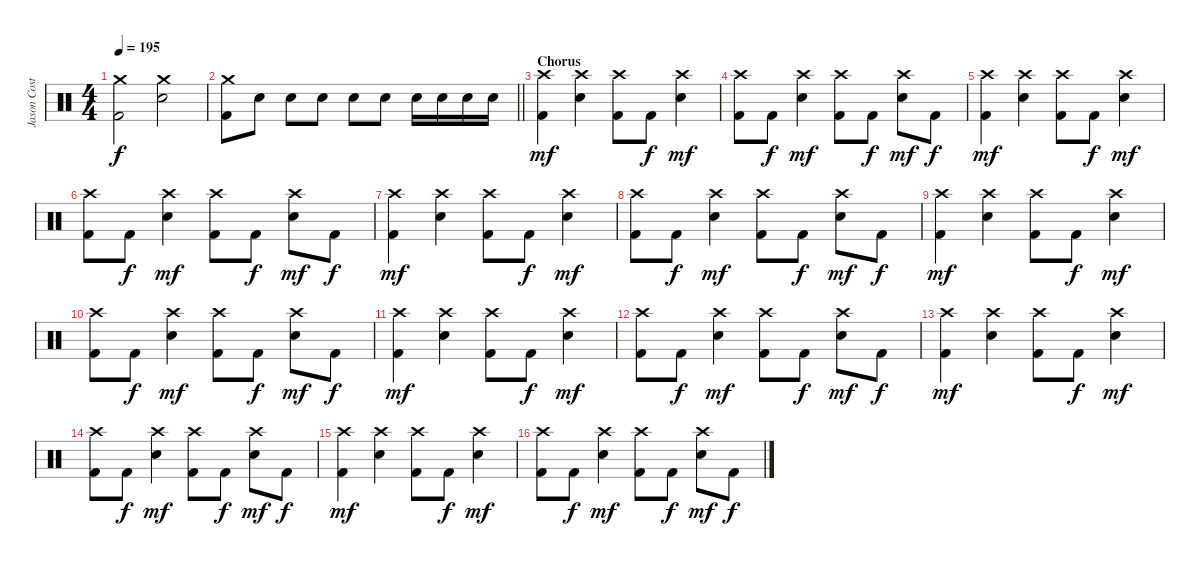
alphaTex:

\track ("Jason Costa" "Jason Cost") {instrument percussion}
\staff {score}
\articulation defaults
\ts (4 4)
\tempo 195
\clef neutral
\ks c
("Crash medium (hit)" "Kick (hit) 2").2{dy f} ("Crash medium (hit)" "Electric Snare (hit)").2 |
\barLineRight lightlight
("Crash medium (hit)" "Kick (hit) 2").8 "Electric Snare (hit)".8 "Electric Snare (hit)".8 "Electric Snare (hit)".8 "Electric Snare (hit)".8 "Electric Snare (hit)".8 "Electric Snare (hit)".16 "Electric Snare (hit)".16 "Electric Snare (hit)".16 "Electric Snare (hit)".16 |
\section ("" "Chorus")
("Crash high (hit)" "Kick (hit) 2").4{dy mf} ("Crash high (hit)" "Electric Snare (hit)").4 ("Crash high (hit)" "Kick (hit) 2").8 "Kick (hit) 2".8{dy f} ("Crash high (hit)" "Electric Snare (hit)").4{dy mf} |
("Crash high (hit)" "Kick (hit) 2").8 "Kick (hit) 2".8{dy f} ("Crash high (hit)" "Electric Snare (hit)").4{dy mf} ("Crash high (hit)" "Kick (hit) 2").8 "Kick (hit) 2".8{dy f} ("Crash high (hit)" "Electric Snare (hit)").8{dy mf} "Kick (hit) 2".8{dy f} |
("Crash high (hit)" "Kick (hit) 2").4{dy mf} ("Crash high (hit)" "Electric Snare (hit)").4 ("Crash high (hit)" "Kick (hit) 2").8 "Kick (hit) 2".8{dy f} ("Crash high (hit)" "Electric Snare (hit)").4{dy mf} |
("Crash high (hit)" "Kick (hit) 2").8 "Kick (hit) 2".8{dy f} ("Crash high (hit)" "Electric Snare (hit)").4{dy mf} ("Crash high (hit)" "Kick (hit) 2").8 "Kick (hit) 2".8{dy f} ("Crash high (hit)" "Electric Snare (hit)").8{dy mf} "Kick (hit) 2".8{dy f} |
("Crash high (hit)" "Kick (hit) 2").4{dy mf} ("Crash high (hit)" "Electric Snare (hit)").4 ("Crash high (hit)" "Kick (hit) 2").8 "Kick (hit) 2".8{dy f} ("Crash high (hit)" "Electric Snare (hit)").4{dy mf} |
("Crash high (hit)" "Kick (hit) 2").8 "Kick (hit) 2".8{dy f} ("Crash high (hit)" "Electric Snare (hit)").4{dy mf} ("Crash high (hit)" "Kick (hit) 2").8 "Kick (hit) 2".8{dy f} ("Crash high (hit)" "Electric Snare (hit)").8{dy mf} "Kick (hit) 2".8{dy f} |
("Crash high (hit)" "Kick (hit) 2").4{dy mf} ("Crash high (hit)" "Electric Snare (hit)").4 ("Crash high (hit)" "Kick (hit) 2").8 "Kick (hit) 2".8{dy f} ("Crash high (hit)" "Electric Snare (hit)").4{dy mf} |
("Crash high (hit)" "Kick (hit) 2").8 "Kick (hit) 2".8{dy f} ("Crash high (hit)" "Electric Snare (hit)").4{dy mf} ("Crash high (hit)" "Kick (hit) 2").8 "Kick (hit) 2".8{dy f} ("Crash high (hit)" "Electric Snare (hit)").8{dy mf} "Kick (hit) 2".8{dy f} |
("Crash high (hit)" "Kick (hit) 2").4{dy mf} ("Crash high (hit)" "Electric Snare (hit)").4 ("Crash high (hit)" "Kick (hit) 2").8 "Kick (hit) 2".8{dy f} ("Crash high (hit)" "Electric Snare (hit)").4{dy mf} |
("Crash high (hit)" "Kick (hit) 2").8 "Kick (hit) 2".8{dy f} ("Crash high (hit)" "Electric Snare (hit)").4{dy mf} ("Crash high (hit)" "Kick (hit) 2").8 "Kick (hit) 2".8{dy f} ("Crash high (hit)" "Electric Snare (hit)").8{dy mf} "Kick (hit) 2".8{dy f} |
("Crash high (hit)" "Kick (hit) 2").4{dy mf} ("Crash high (hit)" "Electric Snare (hit)").4 ("Crash high (hit)" "Kick (hit) 2").8 "Kick (hit) 2".8{dy f} ("Crash high (hit)" "Electric Snare (hit)").4{dy mf} |
("Crash high (hit)" "Kick (hit) 2").8 "Kick (hit) 2".8{dy f} ("Crash high (hit)" "Electric Snare (hit)").4{dy mf} ("Crash high (hit)" "Kick (hit) 2").8 "Kick (hit) 2".8{dy f} ("Crash high (hit)" "Electric Snare (hit)").8{dy mf} "Kick (hit) 2".8{dy f} |
("Crash high (hit)" "Kick (hit) 2").4{dy mf} ("Crash high (hit)" "Electric Snare (hit)").4 ("Crash high (hit)" "Kick (hit) 2").8 "Kick (hit) 2".8{dy f} ("Crash high (hit)" "Electric Snare (hit)").4{dy mf} |
("Crash high (hit)" "Kick (hit) 2").8 "Kick (hit) 2".8{dy f} ("Crash high (hit)" "Electric Snare (hit)").4{dy mf} ("Crash high (hit)" "Kick (hit) 2").8 "Kick (hit) 2".8{dy f} ("Crash high (hit)" "Electric Snare (hit)").8{dy mf} "Kick (hit) 2".8{dy f}
